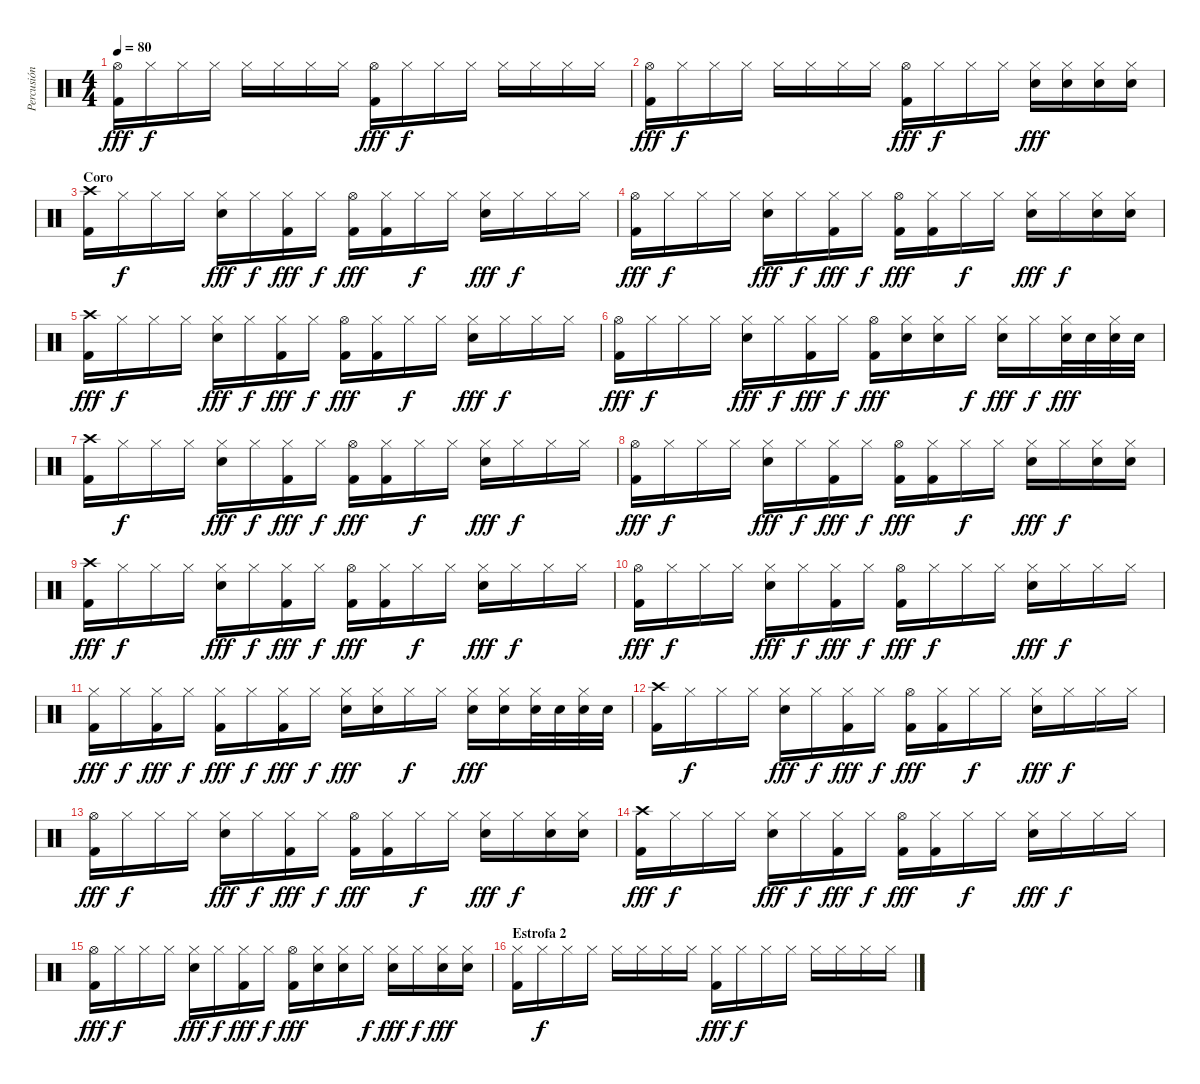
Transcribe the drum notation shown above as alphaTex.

\track ("Percusión" "Percusión") {instrument percussion}
\staff {score}
\articulation defaults
\ts (4 4)
\tempo 80
\clef neutral
\ks c
("Hi-Hat (open)" "Kick (hit) 2").16{dy fff} "Hi-Hat (closed)".16{dy f} "Hi-Hat (closed)".16 "Hi-Hat (closed)".16 "Hi-Hat (closed)".16 "Hi-Hat (closed)".16 "Hi-Hat (closed)".16 "Hi-Hat (closed)".16 ("Hi-Hat (open)" "Kick (hit) 2").16{dy fff} "Hi-Hat (closed)".16{dy f} "Hi-Hat (closed)".16 "Hi-Hat (closed)".16 "Hi-Hat (closed)".16 "Hi-Hat (closed)".16 "Hi-Hat (closed)".16 "Hi-Hat (closed)".16 |
("Hi-Hat (open)" "Kick (hit) 2").16{dy fff} "Hi-Hat (closed)".16{dy f} "Hi-Hat (closed)".16 "Hi-Hat (closed)".16 "Hi-Hat (closed)".16 "Hi-Hat (closed)".16 "Hi-Hat (closed)".16 "Hi-Hat (closed)".16 ("Hi-Hat (open)" "Kick (hit) 2").16{dy fff} "Hi-Hat (closed)".16{dy f} "Hi-Hat (closed)".16 "Hi-Hat (closed)".16 ("Hi-Hat (closed)" "Snare (hit) 2").16{dy fff} ("Hi-Hat (closed)" "Snare (hit) 2").16 ("Hi-Hat (closed)" "Snare (hit) 2").16 ("Hi-Hat (closed)" "Snare (hit) 2").16 |
\section ("" "Coro")
("Crash high (hit)" "Kick (hit) 2").16 "Hi-Hat (closed)".16{dy f} "Hi-Hat (closed)".16 "Hi-Hat (closed)".16 ("Hi-Hat (closed)" "Snare (hit) 2").16{dy fff} "Hi-Hat (closed)".16{dy f} ("Hi-Hat (closed)" "Kick (hit) 2").16{dy fff} "Hi-Hat (closed)".16{dy f} ("Hi-Hat (open)" "Kick (hit) 2").16{dy fff} ("Hi-Hat (closed)" "Kick (hit) 2").16 "Hi-Hat (closed)".16{dy f} "Hi-Hat (closed)".16 ("Hi-Hat (closed)" "Snare (hit) 2").16{dy fff} "Hi-Hat (closed)".16{dy f} "Hi-Hat (closed)".16 "Hi-Hat (closed)".16 |
("Hi-Hat (open)" "Kick (hit) 2").16{dy fff} "Hi-Hat (closed)".16{dy f} "Hi-Hat (closed)".16 "Hi-Hat (closed)".16 ("Hi-Hat (closed)" "Snare (hit) 2").16{dy fff} "Hi-Hat (closed)".16{dy f} ("Hi-Hat (closed)" "Kick (hit) 2").16{dy fff} "Hi-Hat (closed)".16{dy f} ("Hi-Hat (open)" "Kick (hit) 2").16{dy fff} ("Hi-Hat (closed)" "Kick (hit) 2").16 "Hi-Hat (closed)".16{dy f} "Hi-Hat (closed)".16 ("Hi-Hat (closed)" "Snare (hit) 2").16{dy fff} "Hi-Hat (closed)".16{dy f} ("Hi-Hat (closed)" "Snare (hit) 2").16 ("Hi-Hat (closed)" "Snare (hit) 2").16 |
("Crash high (hit)" "Kick (hit) 2").16{dy fff} "Hi-Hat (closed)".16{dy f} "Hi-Hat (closed)".16 "Hi-Hat (closed)".16 ("Hi-Hat (closed)" "Snare (hit) 2").16{dy fff} "Hi-Hat (closed)".16{dy f} ("Hi-Hat (closed)" "Kick (hit) 2").16{dy fff} "Hi-Hat (closed)".16{dy f} ("Hi-Hat (open)" "Kick (hit) 2").16{dy fff} ("Hi-Hat (closed)" "Kick (hit) 2").16 "Hi-Hat (closed)".16{dy f} "Hi-Hat (closed)".16 ("Hi-Hat (closed)" "Snare (hit) 2").16{dy fff} "Hi-Hat (closed)".16{dy f} "Hi-Hat (closed)".16 "Hi-Hat (closed)".16 |
("Hi-Hat (open)" "Kick (hit) 2").16{dy fff} "Hi-Hat (closed)".16{dy f} "Hi-Hat (closed)".16 "Hi-Hat (closed)".16 ("Hi-Hat (closed)" "Snare (hit) 2").16{dy fff} "Hi-Hat (closed)".16{dy f} ("Hi-Hat (closed)" "Kick (hit) 2").16{dy fff} "Hi-Hat (closed)".16{dy f} ("Hi-Hat (open)" "Kick (hit) 2").16{dy fff} ("Hi-Hat (closed)" "Snare (hit) 2").16 ("Hi-Hat (closed)" "Snare (hit) 2").16 "Hi-Hat (closed)".16{dy f} ("Hi-Hat (closed)" "Snare (hit) 2").16{dy fff} "Hi-Hat (closed)".16{dy f} ("Hi-Hat (closed)" "Snare (hit) 2").32{dy fff} "Snare (hit) 2".32 ("Hi-Hat (closed)" "Snare (hit) 2").32 "Snare (hit) 2".32 |
("Crash high (hit)" "Kick (hit) 2").16 "Hi-Hat (closed)".16{dy f} "Hi-Hat (closed)".16 "Hi-Hat (closed)".16 ("Hi-Hat (closed)" "Snare (hit) 2").16{dy fff} "Hi-Hat (closed)".16{dy f} ("Hi-Hat (closed)" "Kick (hit) 2").16{dy fff} "Hi-Hat (closed)".16{dy f} ("Hi-Hat (open)" "Kick (hit) 2").16{dy fff} ("Hi-Hat (closed)" "Kick (hit) 2").16 "Hi-Hat (closed)".16{dy f} "Hi-Hat (closed)".16 ("Hi-Hat (closed)" "Snare (hit) 2").16{dy fff} "Hi-Hat (closed)".16{dy f} "Hi-Hat (closed)".16 "Hi-Hat (closed)".16 |
("Hi-Hat (open)" "Kick (hit) 2").16{dy fff} "Hi-Hat (closed)".16{dy f} "Hi-Hat (closed)".16 "Hi-Hat (closed)".16 ("Hi-Hat (closed)" "Snare (hit) 2").16{dy fff} "Hi-Hat (closed)".16{dy f} ("Hi-Hat (closed)" "Kick (hit) 2").16{dy fff} "Hi-Hat (closed)".16{dy f} ("Hi-Hat (open)" "Kick (hit) 2").16{dy fff} ("Hi-Hat (closed)" "Kick (hit) 2").16 "Hi-Hat (closed)".16{dy f} "Hi-Hat (closed)".16 ("Hi-Hat (closed)" "Snare (hit) 2").16{dy fff} "Hi-Hat (closed)".16{dy f} ("Hi-Hat (closed)" "Snare (hit) 2").16 ("Hi-Hat (closed)" "Snare (hit) 2").16 |
("Crash high (hit)" "Kick (hit) 2").16{dy fff} "Hi-Hat (closed)".16{dy f} "Hi-Hat (closed)".16 "Hi-Hat (closed)".16 ("Hi-Hat (closed)" "Snare (hit) 2").16{dy fff} "Hi-Hat (closed)".16{dy f} ("Hi-Hat (closed)" "Kick (hit) 2").16{dy fff} "Hi-Hat (closed)".16{dy f} ("Hi-Hat (open)" "Kick (hit) 2").16{dy fff} ("Hi-Hat (closed)" "Kick (hit) 2").16 "Hi-Hat (closed)".16{dy f} "Hi-Hat (closed)".16 ("Hi-Hat (closed)" "Snare (hit) 2").16{dy fff} "Hi-Hat (closed)".16{dy f} "Hi-Hat (closed)".16 "Hi-Hat (closed)".16 |
("Hi-Hat (open)" "Kick (hit) 2").16{dy fff} "Hi-Hat (closed)".16{dy f} "Hi-Hat (closed)".16 "Hi-Hat (closed)".16 ("Hi-Hat (closed)" "Snare (hit) 2").16{dy fff} "Hi-Hat (closed)".16{dy f} ("Hi-Hat (closed)" "Kick (hit) 2").16{dy fff} "Hi-Hat (closed)".16{dy f} ("Hi-Hat (open)" "Kick (hit) 2").16{dy fff} "Hi-Hat (closed)".16{dy f} "Hi-Hat (closed)".16 "Hi-Hat (closed)".16 ("Hi-Hat (closed)" "Snare (hit) 2").16{dy fff} "Hi-Hat (closed)".16{dy f} "Hi-Hat (closed)".16 "Hi-Hat (closed)".16 |
("Hi-Hat (closed)" "Kick (hit) 2").16{dy fff} "Hi-Hat (closed)".16{dy f} ("Hi-Hat (closed)" "Kick (hit) 2").16{dy fff} "Hi-Hat (closed)".16{dy f} ("Hi-Hat (closed)" "Kick (hit) 2").16{dy fff} "Hi-Hat (closed)".16{dy f} ("Hi-Hat (closed)" "Kick (hit) 2").16{dy fff} "Hi-Hat (closed)".16{dy f} ("Hi-Hat (closed)" "Snare (hit) 2").16{dy fff} ("Hi-Hat (closed)" "Snare (hit) 2").16 "Hi-Hat (closed)".16{dy f} "Hi-Hat (closed)".16 ("Hi-Hat (closed)" "Snare (hit) 2").16{dy fff} ("Hi-Hat (closed)" "Snare (hit) 2").16 ("Hi-Hat (closed)" "Snare (hit) 2").32 "Snare (hit) 2".32 ("Hi-Hat (closed)" "Snare (hit) 2").32 "Snare (hit) 2".32 |
("Crash high (hit)" "Kick (hit) 2").16 "Hi-Hat (closed)".16{dy f} "Hi-Hat (closed)".16 "Hi-Hat (closed)".16 ("Hi-Hat (closed)" "Snare (hit) 2").16{dy fff} "Hi-Hat (closed)".16{dy f} ("Hi-Hat (closed)" "Kick (hit) 2").16{dy fff} "Hi-Hat (closed)".16{dy f} ("Hi-Hat (open)" "Kick (hit) 2").16{dy fff} ("Hi-Hat (closed)" "Kick (hit) 2").16 "Hi-Hat (closed)".16{dy f} "Hi-Hat (closed)".16 ("Hi-Hat (closed)" "Snare (hit) 2").16{dy fff} "Hi-Hat (closed)".16{dy f} "Hi-Hat (closed)".16 "Hi-Hat (closed)".16 |
("Hi-Hat (open)" "Kick (hit) 2").16{dy fff} "Hi-Hat (closed)".16{dy f} "Hi-Hat (closed)".16 "Hi-Hat (closed)".16 ("Hi-Hat (closed)" "Snare (hit) 2").16{dy fff} "Hi-Hat (closed)".16{dy f} ("Hi-Hat (closed)" "Kick (hit) 2").16{dy fff} "Hi-Hat (closed)".16{dy f} ("Hi-Hat (open)" "Kick (hit) 2").16{dy fff} ("Hi-Hat (closed)" "Kick (hit) 2").16 "Hi-Hat (closed)".16{dy f} "Hi-Hat (closed)".16 ("Hi-Hat (closed)" "Snare (hit) 2").16{dy fff} "Hi-Hat (closed)".16{dy f} ("Hi-Hat (closed)" "Snare (hit) 2").16 ("Hi-Hat (closed)" "Snare (hit) 2").16 |
("Crash high (hit)" "Kick (hit) 2").16{dy fff} "Hi-Hat (closed)".16{dy f} "Hi-Hat (closed)".16 "Hi-Hat (closed)".16 ("Hi-Hat (closed)" "Snare (hit) 2").16{dy fff} "Hi-Hat (closed)".16{dy f} ("Hi-Hat (closed)" "Kick (hit) 2").16{dy fff} "Hi-Hat (closed)".16{dy f} ("Hi-Hat (open)" "Kick (hit) 2").16{dy fff} ("Hi-Hat (closed)" "Kick (hit) 2").16 "Hi-Hat (closed)".16{dy f} "Hi-Hat (closed)".16 ("Hi-Hat (closed)" "Snare (hit) 2").16{dy fff} "Hi-Hat (closed)".16{dy f} "Hi-Hat (closed)".16 "Hi-Hat (closed)".16 |
("Hi-Hat (open)" "Kick (hit) 2").16{dy fff} "Hi-Hat (closed)".16{dy f} "Hi-Hat (closed)".16 "Hi-Hat (closed)".16 ("Hi-Hat (closed)" "Snare (hit) 2").16{dy fff} "Hi-Hat (closed)".16{dy f} ("Hi-Hat (closed)" "Kick (hit) 2").16{dy fff} "Hi-Hat (closed)".16{dy f} ("Hi-Hat (open)" "Kick (hit) 2").16{dy fff} ("Hi-Hat (closed)" "Snare (hit) 2").16 ("Hi-Hat (closed)" "Snare (hit) 2").16 "Hi-Hat (closed)".16{dy f} ("Hi-Hat (closed)" "Snare (hit) 2").16{dy fff} "Hi-Hat (closed)".16{dy f} ("Hi-Hat (closed)" "Snare (hit) 2").16{dy fff} ("Hi-Hat (closed)" "Snare (hit) 2").16 |
\section ("" "Estrofa 2")
("Hi-Hat (closed)" "Kick (hit) 2").16 "Hi-Hat (closed)".16{dy f} "Hi-Hat (closed)".16 "Hi-Hat (closed)".16 "Hi-Hat (closed)".16 "Hi-Hat (closed)".16 "Hi-Hat (closed)".16 "Hi-Hat (closed)".16 ("Hi-Hat (closed)" "Kick (hit) 2").16{dy fff} "Hi-Hat (closed)".16{dy f} "Hi-Hat (closed)".16 "Hi-Hat (closed)".16 "Hi-Hat (closed)".16 "Hi-Hat (closed)".16 "Hi-Hat (closed)".16 "Hi-Hat (closed)".16
